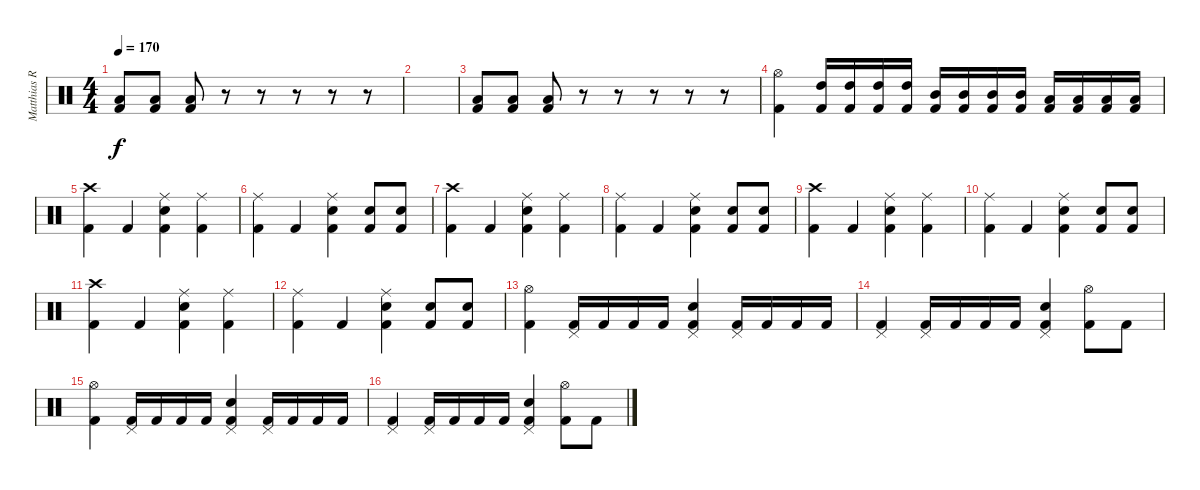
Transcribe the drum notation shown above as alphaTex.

\track ("Matthias R." "Matthias R") {instrument percussion}
\staff {score}
\articulation defaults
\ts (4 4)
\tempo 170
\clef neutral
\ks c
("Kick (hit) 2" "Low Tom (hit)").8{dy f} ("Kick (hit) 2" "Low Tom (hit)").8 ("Kick (hit) 2" "Low Tom (hit)").8 r.8 r.8 r.8 r.8 r.8 |
|
("Kick (hit) 2" "Low Tom (hit)").8 ("Kick (hit) 2" "Low Tom (hit)").8 ("Kick (hit) 2" "Low Tom (hit)").8 r.8 r.8 r.8 r.8 r.8 |
("Kick (hit) 2" "Hi-Hat (open)").4 ("High Tom (hit)" "Kick (hit) 2").16 ("High Tom (hit)" "Kick (hit) 2").16 ("High Tom (hit)" "Kick (hit) 2").16 ("High Tom (hit)" "Kick (hit) 2").16 ("Mid Tom (hit)" "Kick (hit) 2").16 ("Mid Tom (hit)" "Kick (hit) 2").16 ("Mid Tom (hit)" "Kick (hit) 2").16 ("Mid Tom (hit)" "Kick (hit) 2").16 ("Low Tom (hit)" "Kick (hit) 2").16 ("Low Tom (hit)" "Kick (hit) 2").16 ("Low Tom (hit)" "Kick (hit) 2").16 ("Low Tom (hit)" "Kick (hit) 2").16 |
("Kick (hit) 2" "Crash high (hit)").4 "Kick (hit) 2".4 ("Kick (hit) 2" "Snare (hit) 2" "Ride (middle)").4 ("Kick (hit) 2" "Ride (middle)").4 |
("Kick (hit) 2" "Ride (middle)").4 "Kick (hit) 2".4 ("Kick (hit) 2" "Snare (hit) 2" "Ride (middle)").4 ("Kick (hit) 2" "Snare (hit) 2").8 ("Kick (hit) 2" "Snare (hit) 2").8 |
("Kick (hit) 2" "Crash high (hit)").4 "Kick (hit) 2".4 ("Kick (hit) 2" "Snare (hit) 2" "Ride (middle)").4 ("Kick (hit) 2" "Ride (middle)").4 |
("Kick (hit) 2" "Ride (middle)").4 "Kick (hit) 2".4 ("Kick (hit) 2" "Snare (hit) 2" "Ride (middle)").4 ("Kick (hit) 2" "Snare (hit) 2").8 ("Kick (hit) 2" "Snare (hit) 2").8 |
("Kick (hit) 2" "Crash high (hit)").4 "Kick (hit) 2".4 ("Kick (hit) 2" "Snare (hit) 2" "Ride (middle)").4 ("Kick (hit) 2" "Ride (middle)").4 |
("Kick (hit) 2" "Ride (middle)").4 "Kick (hit) 2".4 ("Kick (hit) 2" "Snare (hit) 2" "Ride (middle)").4 ("Kick (hit) 2" "Snare (hit) 2").8 ("Kick (hit) 2" "Snare (hit) 2").8 |
("Kick (hit) 2" "Crash high (hit)").4 "Kick (hit) 2".4 ("Kick (hit) 2" "Snare (hit) 2" "Ride (middle)").4 ("Kick (hit) 2" "Ride (middle)").4 |
("Kick (hit) 2" "Ride (middle)").4 "Kick (hit) 2".4 ("Kick (hit) 2" "Snare (hit) 2" "Ride (middle)").4 ("Kick (hit) 2" "Snare (hit) 2").8 ("Kick (hit) 2" "Snare (hit) 2").8 |
("Kick (hit) 2" "Hi-Hat (open)").4 ("Kick (hit) 2" "Pedal Hi-Hat (hit)").16 "Kick (hit) 2".16 "Kick (hit) 2".16 "Kick (hit) 2".16 ("Kick (hit) 2" "Snare (hit) 2" "Pedal Hi-Hat (hit)").4 ("Kick (hit) 2" "Pedal Hi-Hat (hit)").16 "Kick (hit) 2".16 "Kick (hit) 2".16 "Kick (hit) 2".16 |
("Kick (hit) 2" "Pedal Hi-Hat (hit)").4 ("Kick (hit) 2" "Pedal Hi-Hat (hit)").16 "Kick (hit) 2".16 "Kick (hit) 2".16 "Kick (hit) 2".16 ("Kick (hit) 2" "Snare (hit) 2" "Pedal Hi-Hat (hit)").4 ("Kick (hit) 2" "Hi-Hat (open)").8 "Kick (hit) 2".8 |
("Kick (hit) 2" "Hi-Hat (open)").4 ("Kick (hit) 2" "Pedal Hi-Hat (hit)").16 "Kick (hit) 2".16 "Kick (hit) 2".16 "Kick (hit) 2".16 ("Kick (hit) 2" "Snare (hit) 2" "Pedal Hi-Hat (hit)").4 ("Kick (hit) 2" "Pedal Hi-Hat (hit)").16 "Kick (hit) 2".16 "Kick (hit) 2".16 "Kick (hit) 2".16 |
("Kick (hit) 2" "Pedal Hi-Hat (hit)").4 ("Kick (hit) 2" "Pedal Hi-Hat (hit)").16 "Kick (hit) 2".16 "Kick (hit) 2".16 "Kick (hit) 2".16 ("Kick (hit) 2" "Snare (hit) 2" "Pedal Hi-Hat (hit)").4 ("Kick (hit) 2" "Hi-Hat (open)").8 "Kick (hit) 2".8
